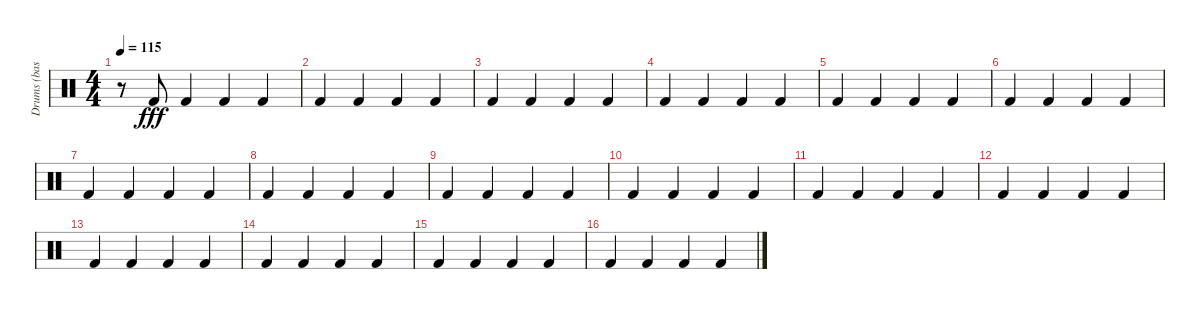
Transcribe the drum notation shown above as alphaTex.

\track ("Drums (bass drum)" "Drums (bas") {instrument percussion}
\staff {score}
\articulation defaults
\ts (4 4)
\tempo 115
\clef neutral
\ks c
r.8{dy fff} "Kick (hit) 2".8 "Kick (hit) 2".4 "Kick (hit) 2".4 "Kick (hit) 2".4 |
"Kick (hit) 2".4 "Kick (hit) 2".4 "Kick (hit) 2".4 "Kick (hit) 2".4 |
"Kick (hit) 2".4 "Kick (hit) 2".4 "Kick (hit) 2".4 "Kick (hit) 2".4 |
"Kick (hit) 2".4 "Kick (hit) 2".4 "Kick (hit) 2".4 "Kick (hit) 2".4 |
"Kick (hit) 2".4 "Kick (hit) 2".4 "Kick (hit) 2".4 "Kick (hit) 2".4 |
"Kick (hit) 2".4 "Kick (hit) 2".4 "Kick (hit) 2".4 "Kick (hit) 2".4 |
"Kick (hit) 2".4 "Kick (hit) 2".4 "Kick (hit) 2".4 "Kick (hit) 2".4 |
"Kick (hit) 2".4 "Kick (hit) 2".4 "Kick (hit) 2".4 "Kick (hit) 2".4 |
"Kick (hit) 2".4 "Kick (hit) 2".4 "Kick (hit) 2".4 "Kick (hit) 2".4 |
"Kick (hit) 2".4 "Kick (hit) 2".4 "Kick (hit) 2".4 "Kick (hit) 2".4 |
"Kick (hit) 2".4 "Kick (hit) 2".4 "Kick (hit) 2".4 "Kick (hit) 2".4 |
"Kick (hit) 2".4 "Kick (hit) 2".4 "Kick (hit) 2".4 "Kick (hit) 2".4 |
"Kick (hit) 2".4 "Kick (hit) 2".4 "Kick (hit) 2".4 "Kick (hit) 2".4 |
"Kick (hit) 2".4 "Kick (hit) 2".4 "Kick (hit) 2".4 "Kick (hit) 2".4 |
"Kick (hit) 2".4 "Kick (hit) 2".4 "Kick (hit) 2".4 "Kick (hit) 2".4 |
"Kick (hit) 2".4 "Kick (hit) 2".4 "Kick (hit) 2".4 "Kick (hit) 2".4
